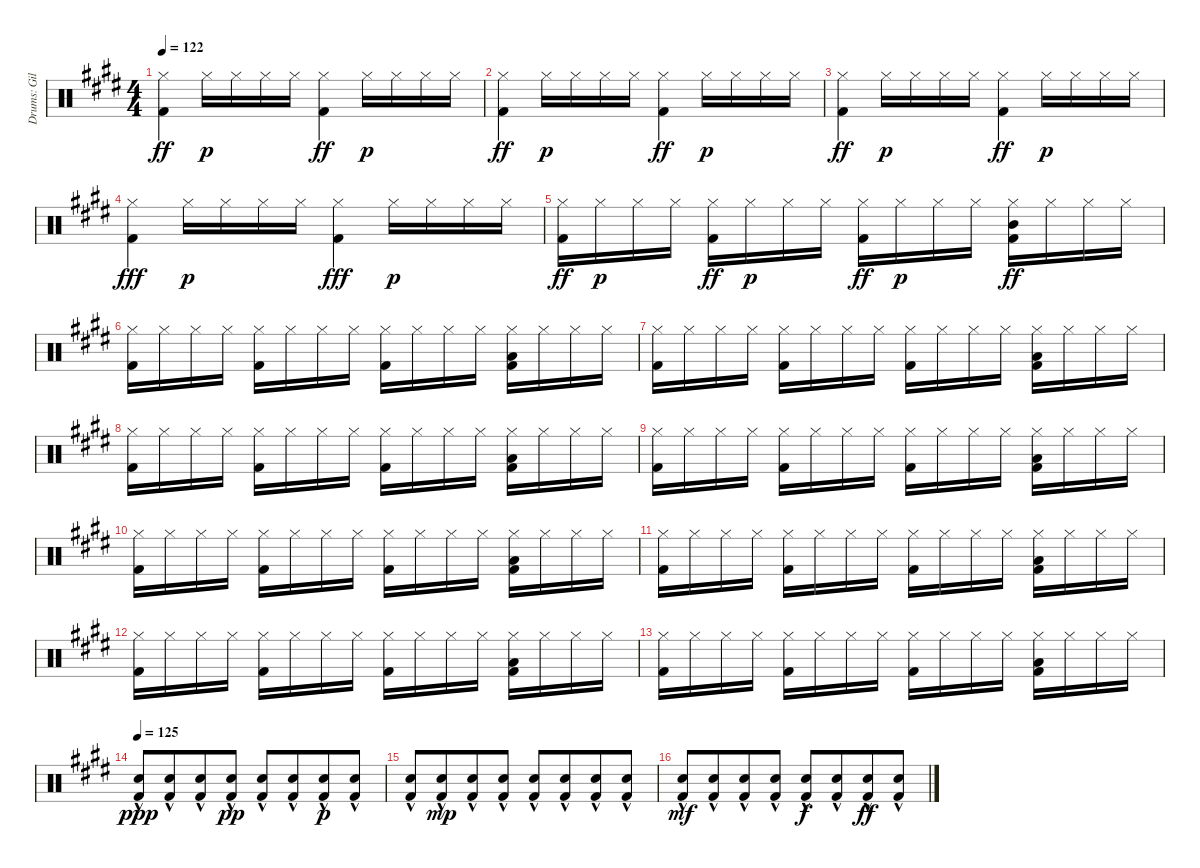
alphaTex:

\track ("Drums: Gil" "Drums: Gil") {instrument percussion}
\staff {score}
\articulation defaults
\ts (4 4)
\tempo 122
\clef neutral
\ks e
("Hi-Hat (closed)" "Kick (hit) 2").4{dy ff} "Hi-Hat (closed)".16{dy p} "Hi-Hat (closed)".16 "Hi-Hat (closed)".16 "Hi-Hat (closed)".16 ("Hi-Hat (closed)" "Kick (hit) 2").4{dy ff} "Hi-Hat (closed)".16{dy p} "Hi-Hat (closed)".16 "Hi-Hat (closed)".16 "Hi-Hat (closed)".16 |
("Hi-Hat (closed)" "Kick (hit) 2").4{dy ff} "Hi-Hat (closed)".16{dy p} "Hi-Hat (closed)".16 "Hi-Hat (closed)".16 "Hi-Hat (closed)".16 ("Hi-Hat (closed)" "Kick (hit) 2").4{dy ff} "Hi-Hat (closed)".16{dy p} "Hi-Hat (closed)".16 "Hi-Hat (closed)".16 "Hi-Hat (closed)".16 |
("Hi-Hat (closed)" "Kick (hit) 2").4{dy ff} "Hi-Hat (closed)".16{dy p} "Hi-Hat (closed)".16 "Hi-Hat (closed)".16 "Hi-Hat (closed)".16 ("Hi-Hat (closed)" "Kick (hit) 2").4{dy ff} "Hi-Hat (closed)".16{dy p} "Hi-Hat (closed)".16 "Hi-Hat (closed)".16 "Hi-Hat (closed)".16 |
("Hi-Hat (closed)" "Kick (hit) 2").4{dy fff} "Hi-Hat (closed)".16{dy p} "Hi-Hat (closed)".16 "Hi-Hat (closed)".16 "Hi-Hat (closed)".16 ("Hi-Hat (closed)" "Kick (hit) 2").4{dy fff} "Hi-Hat (closed)".16{dy p} "Hi-Hat (closed)".16 "Hi-Hat (closed)".16 "Hi-Hat (closed)".16 |
("Hi-Hat (closed)" "Kick (hit) 2").16{dy ff} "Hi-Hat (closed)".16{dy p} "Hi-Hat (closed)".16 "Hi-Hat (closed)".16 ("Hi-Hat (closed)" "Kick (hit) 2").16{dy ff} "Hi-Hat (closed)".16{dy p} "Hi-Hat (closed)".16 "Hi-Hat (closed)".16 ("Hi-Hat (closed)" "Kick (hit) 2").16{dy ff} "Hi-Hat (closed)".16{dy p} "Hi-Hat (closed)".16 "Hi-Hat (closed)".16 ("Hi-Hat (closed)" "Mid Tom (hit)" "Kick (hit) 2").16{dy ff} "Hi-Hat (closed)".16 "Hi-Hat (closed)".16 "Hi-Hat (closed)".16 |
("Hi-Hat (closed)" "Kick (hit) 2").16 "Hi-Hat (closed)".16 "Hi-Hat (closed)".16 "Hi-Hat (closed)".16 ("Hi-Hat (closed)" "Kick (hit) 2").16 "Hi-Hat (closed)".16 "Hi-Hat (closed)".16 "Hi-Hat (closed)".16 ("Hi-Hat (closed)" "Kick (hit) 2").16 "Hi-Hat (closed)".16 "Hi-Hat (closed)".16 "Hi-Hat (closed)".16 ("Hi-Hat (closed)" "Low Tom (hit)" "Kick (hit) 2").16 "Hi-Hat (closed)".16 "Hi-Hat (closed)".16 "Hi-Hat (closed)".16 |
("Hi-Hat (closed)" "Kick (hit) 2").16 "Hi-Hat (closed)".16 "Hi-Hat (closed)".16 "Hi-Hat (closed)".16 ("Hi-Hat (closed)" "Kick (hit) 2").16 "Hi-Hat (closed)".16 "Hi-Hat (closed)".16 "Hi-Hat (closed)".16 ("Hi-Hat (closed)" "Kick (hit) 2").16 "Hi-Hat (closed)".16 "Hi-Hat (closed)".16 "Hi-Hat (closed)".16 ("Hi-Hat (closed)" "Low Tom (hit)" "Kick (hit) 2").16 "Hi-Hat (closed)".16 "Hi-Hat (closed)".16 "Hi-Hat (closed)".16 |
("Hi-Hat (closed)" "Kick (hit) 2").16 "Hi-Hat (closed)".16 "Hi-Hat (closed)".16 "Hi-Hat (closed)".16 ("Hi-Hat (closed)" "Kick (hit) 2").16 "Hi-Hat (closed)".16 "Hi-Hat (closed)".16 "Hi-Hat (closed)".16 ("Hi-Hat (closed)" "Kick (hit) 2").16 "Hi-Hat (closed)".16 "Hi-Hat (closed)".16 "Hi-Hat (closed)".16 ("Hi-Hat (closed)" "Low Tom (hit)" "Kick (hit) 2").16 "Hi-Hat (closed)".16 "Hi-Hat (closed)".16 "Hi-Hat (closed)".16 |
("Hi-Hat (closed)" "Kick (hit) 2").16 "Hi-Hat (closed)".16 "Hi-Hat (closed)".16 "Hi-Hat (closed)".16 ("Hi-Hat (closed)" "Kick (hit) 2").16 "Hi-Hat (closed)".16 "Hi-Hat (closed)".16 "Hi-Hat (closed)".16 ("Hi-Hat (closed)" "Kick (hit) 2").16 "Hi-Hat (closed)".16 "Hi-Hat (closed)".16 "Hi-Hat (closed)".16 ("Hi-Hat (closed)" "Low Tom (hit)" "Kick (hit) 2").16 "Hi-Hat (closed)".16 "Hi-Hat (closed)".16 "Hi-Hat (closed)".16 |
("Hi-Hat (closed)" "Kick (hit) 2").16 "Hi-Hat (closed)".16 "Hi-Hat (closed)".16 "Hi-Hat (closed)".16 ("Hi-Hat (closed)" "Kick (hit) 2").16 "Hi-Hat (closed)".16 "Hi-Hat (closed)".16 "Hi-Hat (closed)".16 ("Hi-Hat (closed)" "Kick (hit) 2").16 "Hi-Hat (closed)".16 "Hi-Hat (closed)".16 "Hi-Hat (closed)".16 ("Hi-Hat (closed)" "Low Tom (hit)" "Kick (hit) 2").16 "Hi-Hat (closed)".16 "Hi-Hat (closed)".16 "Hi-Hat (closed)".16 |
("Hi-Hat (closed)" "Kick (hit) 2").16 "Hi-Hat (closed)".16 "Hi-Hat (closed)".16 "Hi-Hat (closed)".16 ("Hi-Hat (closed)" "Kick (hit) 2").16 "Hi-Hat (closed)".16 "Hi-Hat (closed)".16 "Hi-Hat (closed)".16 ("Hi-Hat (closed)" "Kick (hit) 2").16 "Hi-Hat (closed)".16 "Hi-Hat (closed)".16 "Hi-Hat (closed)".16 ("Hi-Hat (closed)" "Low Tom (hit)" "Kick (hit) 2").16 "Hi-Hat (closed)".16 "Hi-Hat (closed)".16 "Hi-Hat (closed)".16 |
("Hi-Hat (closed)" "Kick (hit) 2").16 "Hi-Hat (closed)".16 "Hi-Hat (closed)".16 "Hi-Hat (closed)".16 ("Hi-Hat (closed)" "Kick (hit) 2").16 "Hi-Hat (closed)".16 "Hi-Hat (closed)".16 "Hi-Hat (closed)".16 ("Hi-Hat (closed)" "Kick (hit) 2").16 "Hi-Hat (closed)".16 "Hi-Hat (closed)".16 "Hi-Hat (closed)".16 ("Hi-Hat (closed)" "Low Tom (hit)" "Kick (hit) 2").16 "Hi-Hat (closed)".16 "Hi-Hat (closed)".16 "Hi-Hat (closed)".16 |
("Hi-Hat (closed)" "Kick (hit) 2").16 "Hi-Hat (closed)".16 "Hi-Hat (closed)".16 "Hi-Hat (closed)".16 ("Hi-Hat (closed)" "Kick (hit) 2").16 "Hi-Hat (closed)".16 "Hi-Hat (closed)".16 "Hi-Hat (closed)".16 ("Hi-Hat (closed)" "Kick (hit) 2").16 "Hi-Hat (closed)".16 "Hi-Hat (closed)".16 "Hi-Hat (closed)".16 ("Hi-Hat (closed)" "Low Tom (hit)" "Kick (hit) 2").16 "Hi-Hat (closed)".16 "Hi-Hat (closed)".16 "Hi-Hat (closed)".16 |
\tempo 125
("Snare (hit) 2"{hac} "Kick (hit) 2"{hac}).8{dy ppp} ("Snare (hit) 2"{hac} "Kick (hit) 2"{hac}).8{beam merge} ("Snare (hit) 2"{hac} "Kick (hit) 2"{hac}).8 ("Snare (hit) 2"{hac} "Kick (hit) 2"{hac}).8{dy pp} ("Snare (hit) 2"{hac} "Kick (hit) 2"{hac}).8{beam merge} ("Snare (hit) 2"{hac} "Kick (hit) 2"{hac}).8{beam merge} ("Snare (hit) 2"{hac} "Kick (hit) 2"{hac}).8{dy p} ("Snare (hit) 2"{hac} "Kick (hit) 2"{hac}).8 |
("Snare (hit) 2"{hac} "Kick (hit) 2"{hac}).8 ("Snare (hit) 2"{hac} "Kick (hit) 2"{hac}).8{dy mp beam merge} ("Snare (hit) 2"{hac} "Kick (hit) 2"{hac}).8 ("Snare (hit) 2"{hac} "Kick (hit) 2"{hac}).8 ("Snare (hit) 2"{hac} "Kick (hit) 2"{hac}).8{beam merge} ("Snare (hit) 2"{hac} "Kick (hit) 2"{hac}).8{beam merge} ("Snare (hit) 2"{hac} "Kick (hit) 2"{hac}).8 ("Snare (hit) 2"{hac} "Kick (hit) 2"{hac}).8 |
("Snare (hit) 2"{hac} "Kick (hit) 2"{hac}).8{dy mf} ("Snare (hit) 2"{hac} "Kick (hit) 2"{hac}).8{beam merge} ("Snare (hit) 2"{hac} "Kick (hit) 2"{hac}).8 ("Snare (hit) 2"{hac} "Kick (hit) 2"{hac}).8 ("Snare (hit) 2"{hac} "Kick (hit) 2"{hac}).8{dy f beam merge} ("Snare (hit) 2"{hac} "Kick (hit) 2"{hac}).8{beam merge} ("Snare (hit) 2"{hac} "Kick (hit) 2"{hac}).8{dy ff} ("Snare (hit) 2"{hac} "Kick (hit) 2"{hac}).8
